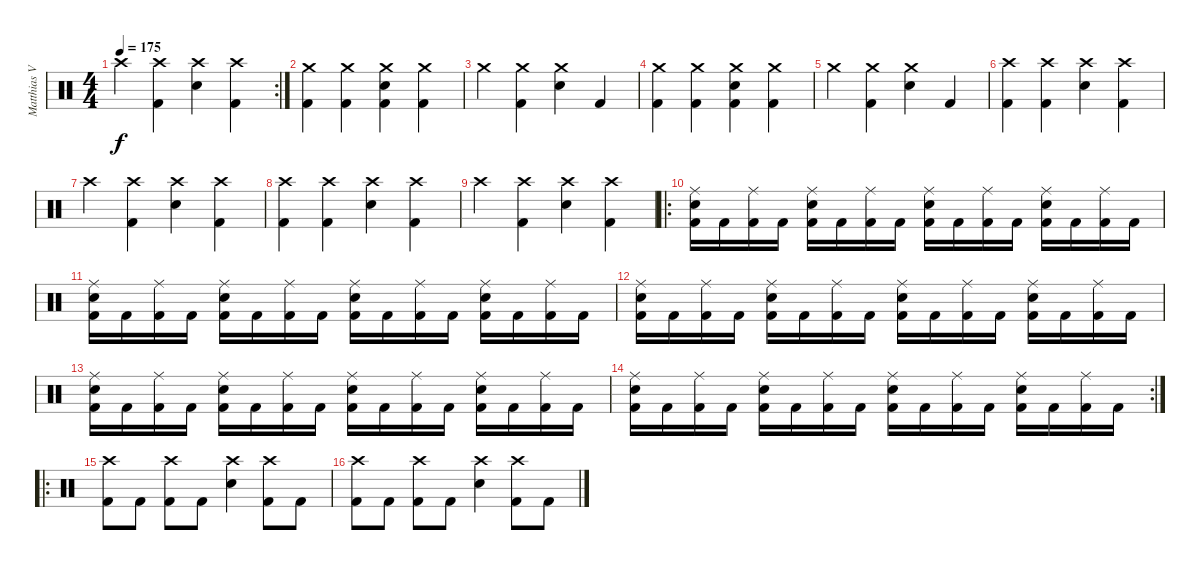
\track ("Matthias Voigt" "Matthias V") {instrument percussion}
\staff {score}
\articulation defaults
\rc 2
\ts (4 4)
\tempo 175
\clef neutral
\ks c "Crash high (hit)".4{dy f}
("Crash high (hit)" "Kick (hit) 2").4 ("Crash high (hit)" "Electric Snare (hit)").4 ("Crash high (hit)" "Kick (hit) 2").4 |
("Crash medium (hit)" "Kick (hit) 2").4 ("Crash medium (hit)" "Kick (hit) 2").4 ("Crash medium (hit)" "Electric Snare (hit)" "Kick (hit) 2").4 ("Crash medium (hit)" "Kick (hit) 2").4 |
"Crash medium (hit)".4 ("Crash medium (hit)" "Kick (hit) 2").4 ("Crash medium (hit)" "Electric Snare (hit)").4 "Kick (hit) 2".4 |
("Crash medium (hit)" "Kick (hit) 2").4 ("Crash medium (hit)" "Kick (hit) 2").4 ("Crash medium (hit)" "Electric Snare (hit)" "Kick (hit) 2").4 ("Crash medium (hit)" "Kick (hit) 2").4 |
"Crash medium (hit)".4 ("Crash medium (hit)" "Kick (hit) 2").4 ("Crash medium (hit)" "Electric Snare (hit)").4 "Kick (hit) 2".4 |
("Crash high (hit)" "Kick (hit) 2").4 ("Crash high (hit)" "Kick (hit) 2").4 ("Crash high (hit)" "Electric Snare (hit)").4 ("Crash high (hit)" "Kick (hit) 2").4 |
"Crash high (hit)".4 ("Crash high (hit)" "Kick (hit) 2").4 ("Crash high (hit)" "Electric Snare (hit)").4 ("Crash high (hit)" "Kick (hit) 2").4 |
("Crash high (hit)" "Kick (hit) 2").4 ("Crash high (hit)" "Kick (hit) 2").4 ("Crash high (hit)" "Electric Snare (hit)").4 ("Crash high (hit)" "Kick (hit) 2").4 |
"Crash high (hit)".4 ("Crash high (hit)" "Kick (hit) 2").4 ("Crash high (hit)" "Electric Snare (hit)").4 ("Crash high (hit)" "Kick (hit) 2").4 |
\ro
("Ride (middle)" "Electric Snare (hit)" "Kick (hit) 2").16 "Kick (hit) 2".16 ("Ride (middle)" "Kick (hit) 2").16 "Kick (hit) 2".16 ("Ride (middle)" "Electric Snare (hit)" "Kick (hit) 2").16 "Kick (hit) 2".16 ("Ride (middle)" "Kick (hit) 2").16 "Kick (hit) 2".16 ("Ride (middle)" "Electric Snare (hit)" "Kick (hit) 2").16 "Kick (hit) 2".16 ("Ride (middle)" "Kick (hit) 2").16 "Kick (hit) 2".16 ("Ride (middle)" "Electric Snare (hit)" "Kick (hit) 2").16 "Kick (hit) 2".16 ("Ride (middle)" "Kick (hit) 2").16 "Kick (hit) 2".16 |
("Ride (middle)" "Electric Snare (hit)" "Kick (hit) 2").16 "Kick (hit) 2".16 ("Ride (middle)" "Kick (hit) 2").16 "Kick (hit) 2".16 ("Ride (middle)" "Electric Snare (hit)" "Kick (hit) 2").16 "Kick (hit) 2".16 ("Ride (middle)" "Kick (hit) 2").16 "Kick (hit) 2".16 ("Ride (middle)" "Electric Snare (hit)" "Kick (hit) 2").16 "Kick (hit) 2".16 ("Ride (middle)" "Kick (hit) 2").16 "Kick (hit) 2".16 ("Ride (middle)" "Electric Snare (hit)" "Kick (hit) 2").16 "Kick (hit) 2".16 ("Ride (middle)" "Kick (hit) 2").16 "Kick (hit) 2".16 |
("Ride (middle)" "Electric Snare (hit)" "Kick (hit) 2").16 "Kick (hit) 2".16 ("Ride (middle)" "Kick (hit) 2").16 "Kick (hit) 2".16 ("Ride (middle)" "Electric Snare (hit)" "Kick (hit) 2").16 "Kick (hit) 2".16 ("Ride (middle)" "Kick (hit) 2").16 "Kick (hit) 2".16 ("Ride (middle)" "Electric Snare (hit)" "Kick (hit) 2").16 "Kick (hit) 2".16 ("Ride (middle)" "Kick (hit) 2").16 "Kick (hit) 2".16 ("Ride (middle)" "Electric Snare (hit)" "Kick (hit) 2").16 "Kick (hit) 2".16 ("Ride (middle)" "Kick (hit) 2").16 "Kick (hit) 2".16 |
("Ride (middle)" "Electric Snare (hit)" "Kick (hit) 2").16 "Kick (hit) 2".16 ("Ride (middle)" "Kick (hit) 2").16 "Kick (hit) 2".16 ("Ride (middle)" "Electric Snare (hit)" "Kick (hit) 2").16 "Kick (hit) 2".16 ("Ride (middle)" "Kick (hit) 2").16 "Kick (hit) 2".16 ("Ride (middle)" "Electric Snare (hit)" "Kick (hit) 2").16 "Kick (hit) 2".16 ("Ride (middle)" "Kick (hit) 2").16 "Kick (hit) 2".16 ("Ride (middle)" "Electric Snare (hit)" "Kick (hit) 2").16 "Kick (hit) 2".16 ("Ride (middle)" "Kick (hit) 2").16 "Kick (hit) 2".16 |
\rc 2
("Ride (middle)" "Electric Snare (hit)" "Kick (hit) 2").16 "Kick (hit) 2".16 ("Ride (middle)" "Kick (hit) 2").16 "Kick (hit) 2".16 ("Ride (middle)" "Electric Snare (hit)" "Kick (hit) 2").16 "Kick (hit) 2".16 ("Ride (middle)" "Kick (hit) 2").16 "Kick (hit) 2".16 ("Ride (middle)" "Electric Snare (hit)" "Kick (hit) 2").16 "Kick (hit) 2".16 ("Ride (middle)" "Kick (hit) 2").16 "Kick (hit) 2".16 ("Ride (middle)" "Electric Snare (hit)" "Kick (hit) 2").16 "Kick (hit) 2".16 ("Ride (middle)" "Kick (hit) 2").16 "Kick (hit) 2".16 |
\ro
("Crash high (hit)" "Kick (hit) 2").8 "Kick (hit) 2".8 ("Crash high (hit)" "Kick (hit) 2").8 "Kick (hit) 2".8 ("Crash high (hit)" "Electric Snare (hit)").4 ("Crash high (hit)" "Kick (hit) 2").8 "Kick (hit) 2".8 |
("Crash high (hit)" "Kick (hit) 2").8 "Kick (hit) 2".8 ("Crash high (hit)" "Kick (hit) 2").8 "Kick (hit) 2".8 ("Crash high (hit)" "Electric Snare (hit)").4 ("Crash high (hit)" "Kick (hit) 2").8 "Kick (hit) 2".8
